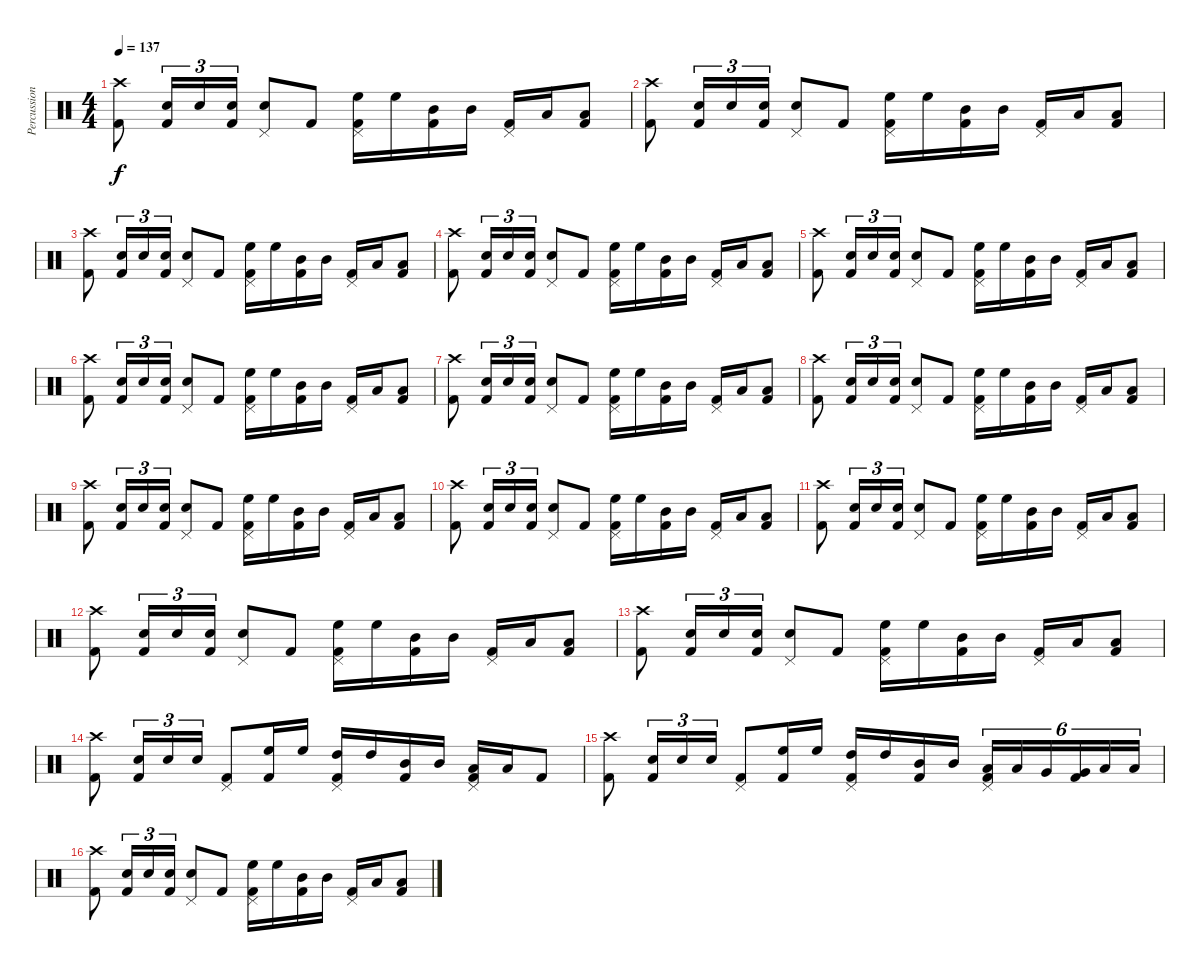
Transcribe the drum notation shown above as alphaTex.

\track ("Percussion" "Percussion") {instrument percussion}
\staff {score}
\articulation defaults
\ts (4 4)
\tempo 137
\clef neutral
\ks c
("Kick (hit) 2" "Crash high (hit)").8{dy f} ("Kick (hit) 2" "Snare (hit) 2").16{tu (3 2)} "Snare (hit) 2".16{tu (3 2)} ("Kick (hit) 2" "Snare (hit) 2").16{tu (3 2)} ("Snare (hit) 2" "Pedal Hi-Hat (hit)").8 "Kick (hit) 2".8 ("Kick (hit) 2" "High Floor Tom (hit)" "Pedal Hi-Hat (hit)").16 "High Floor Tom (hit)".16 ("Kick (hit) 2" "Mid Tom (hit)").16 "Mid Tom (hit)".16 ("Kick (hit) 2" "Pedal Hi-Hat (hit)").16 "Low Tom (hit)".16 ("Kick (hit) 2" "Low Tom (hit)").8 |
("Kick (hit) 2" "Crash high (hit)").8 ("Kick (hit) 2" "Snare (hit) 2").16{tu (3 2)} "Snare (hit) 2".16{tu (3 2)} ("Kick (hit) 2" "Snare (hit) 2").16{tu (3 2)} ("Snare (hit) 2" "Pedal Hi-Hat (hit)").8 "Kick (hit) 2".8 ("Kick (hit) 2" "High Floor Tom (hit)" "Pedal Hi-Hat (hit)").16 "High Floor Tom (hit)".16 ("Kick (hit) 2" "Mid Tom (hit)").16 "Mid Tom (hit)".16 ("Kick (hit) 2" "Pedal Hi-Hat (hit)").16 "Low Tom (hit)".16 ("Kick (hit) 2" "Low Tom (hit)").8 |
("Kick (hit) 2" "Crash high (hit)").8 ("Kick (hit) 2" "Snare (hit) 2").16{tu (3 2)} "Snare (hit) 2".16{tu (3 2)} ("Kick (hit) 2" "Snare (hit) 2").16{tu (3 2)} ("Snare (hit) 2" "Pedal Hi-Hat (hit)").8 "Kick (hit) 2".8 ("Kick (hit) 2" "High Floor Tom (hit)" "Pedal Hi-Hat (hit)").16 "High Floor Tom (hit)".16 ("Kick (hit) 2" "Mid Tom (hit)").16 "Mid Tom (hit)".16 ("Kick (hit) 2" "Pedal Hi-Hat (hit)").16 "Low Tom (hit)".16 ("Kick (hit) 2" "Low Tom (hit)").8 |
("Kick (hit) 2" "Crash high (hit)").8 ("Kick (hit) 2" "Snare (hit) 2").16{tu (3 2)} "Snare (hit) 2".16{tu (3 2)} ("Kick (hit) 2" "Snare (hit) 2").16{tu (3 2)} ("Snare (hit) 2" "Pedal Hi-Hat (hit)").8 "Kick (hit) 2".8 ("Kick (hit) 2" "High Floor Tom (hit)" "Pedal Hi-Hat (hit)").16 "High Floor Tom (hit)".16 ("Kick (hit) 2" "Mid Tom (hit)").16 "Mid Tom (hit)".16 ("Kick (hit) 2" "Pedal Hi-Hat (hit)").16 "Low Tom (hit)".16 ("Kick (hit) 2" "Low Tom (hit)").8 |
("Kick (hit) 2" "Crash high (hit)").8 ("Kick (hit) 2" "Snare (hit) 2").16{tu (3 2)} "Snare (hit) 2".16{tu (3 2)} ("Kick (hit) 2" "Snare (hit) 2").16{tu (3 2)} ("Snare (hit) 2" "Pedal Hi-Hat (hit)").8 "Kick (hit) 2".8 ("Kick (hit) 2" "High Floor Tom (hit)" "Pedal Hi-Hat (hit)").16 "High Floor Tom (hit)".16 ("Kick (hit) 2" "Mid Tom (hit)").16 "Mid Tom (hit)".16 ("Kick (hit) 2" "Pedal Hi-Hat (hit)").16 "Low Tom (hit)".16 ("Kick (hit) 2" "Low Tom (hit)").8 |
("Kick (hit) 2" "Crash high (hit)").8 ("Kick (hit) 2" "Snare (hit) 2").16{tu (3 2)} "Snare (hit) 2".16{tu (3 2)} ("Kick (hit) 2" "Snare (hit) 2").16{tu (3 2)} ("Snare (hit) 2" "Pedal Hi-Hat (hit)").8 "Kick (hit) 2".8 ("Kick (hit) 2" "High Floor Tom (hit)" "Pedal Hi-Hat (hit)").16 "High Floor Tom (hit)".16 ("Kick (hit) 2" "Mid Tom (hit)").16 "Mid Tom (hit)".16 ("Kick (hit) 2" "Pedal Hi-Hat (hit)").16 "Low Tom (hit)".16 ("Kick (hit) 2" "Low Tom (hit)").8 |
("Kick (hit) 2" "Crash high (hit)").8 ("Kick (hit) 2" "Snare (hit) 2").16{tu (3 2)} "Snare (hit) 2".16{tu (3 2)} ("Kick (hit) 2" "Snare (hit) 2").16{tu (3 2)} ("Snare (hit) 2" "Pedal Hi-Hat (hit)").8 "Kick (hit) 2".8 ("Kick (hit) 2" "High Floor Tom (hit)" "Pedal Hi-Hat (hit)").16 "High Floor Tom (hit)".16 ("Kick (hit) 2" "Mid Tom (hit)").16 "Mid Tom (hit)".16 ("Kick (hit) 2" "Pedal Hi-Hat (hit)").16 "Low Tom (hit)".16 ("Kick (hit) 2" "Low Tom (hit)").8 |
("Kick (hit) 2" "Crash high (hit)").8 ("Kick (hit) 2" "Snare (hit) 2").16{tu (3 2)} "Snare (hit) 2".16{tu (3 2)} ("Kick (hit) 2" "Snare (hit) 2").16{tu (3 2)} ("Snare (hit) 2" "Pedal Hi-Hat (hit)").8 "Kick (hit) 2".8 ("Kick (hit) 2" "High Floor Tom (hit)" "Pedal Hi-Hat (hit)").16 "High Floor Tom (hit)".16 ("Kick (hit) 2" "Mid Tom (hit)").16 "Mid Tom (hit)".16 ("Kick (hit) 2" "Pedal Hi-Hat (hit)").16 "Low Tom (hit)".16 ("Kick (hit) 2" "Low Tom (hit)").8 |
("Kick (hit) 2" "Crash high (hit)").8 ("Kick (hit) 2" "Snare (hit) 2").16{tu (3 2)} "Snare (hit) 2".16{tu (3 2)} ("Kick (hit) 2" "Snare (hit) 2").16{tu (3 2)} ("Snare (hit) 2" "Pedal Hi-Hat (hit)").8 "Kick (hit) 2".8 ("Kick (hit) 2" "High Floor Tom (hit)" "Pedal Hi-Hat (hit)").16 "High Floor Tom (hit)".16 ("Kick (hit) 2" "Mid Tom (hit)").16 "Mid Tom (hit)".16 ("Kick (hit) 2" "Pedal Hi-Hat (hit)").16 "Low Tom (hit)".16 ("Kick (hit) 2" "Low Tom (hit)").8 |
("Kick (hit) 2" "Crash high (hit)").8 ("Kick (hit) 2" "Snare (hit) 2").16{tu (3 2)} "Snare (hit) 2".16{tu (3 2)} ("Kick (hit) 2" "Snare (hit) 2").16{tu (3 2)} ("Snare (hit) 2" "Pedal Hi-Hat (hit)").8 "Kick (hit) 2".8 ("Kick (hit) 2" "High Floor Tom (hit)" "Pedal Hi-Hat (hit)").16 "High Floor Tom (hit)".16 ("Kick (hit) 2" "Mid Tom (hit)").16 "Mid Tom (hit)".16 ("Kick (hit) 2" "Pedal Hi-Hat (hit)").16 "Low Tom (hit)".16 ("Kick (hit) 2" "Low Tom (hit)").8 |
("Kick (hit) 2" "Crash high (hit)").8 ("Kick (hit) 2" "Snare (hit) 2").16{tu (3 2)} "Snare (hit) 2".16{tu (3 2)} ("Kick (hit) 2" "Snare (hit) 2").16{tu (3 2)} ("Snare (hit) 2" "Pedal Hi-Hat (hit)").8 "Kick (hit) 2".8 ("Kick (hit) 2" "High Floor Tom (hit)" "Pedal Hi-Hat (hit)").16 "High Floor Tom (hit)".16 ("Kick (hit) 2" "Mid Tom (hit)").16 "Mid Tom (hit)".16 ("Kick (hit) 2" "Pedal Hi-Hat (hit)").16 "Low Tom (hit)".16 ("Kick (hit) 2" "Low Tom (hit)").8 |
("Kick (hit) 2" "Crash high (hit)").8 ("Kick (hit) 2" "Snare (hit) 2").16{tu (3 2)} "Snare (hit) 2".16{tu (3 2)} ("Kick (hit) 2" "Snare (hit) 2").16{tu (3 2)} ("Snare (hit) 2" "Pedal Hi-Hat (hit)").8 "Kick (hit) 2".8 ("Kick (hit) 2" "High Floor Tom (hit)" "Pedal Hi-Hat (hit)").16 "High Floor Tom (hit)".16 ("Kick (hit) 2" "Mid Tom (hit)").16 "Mid Tom (hit)".16 ("Kick (hit) 2" "Pedal Hi-Hat (hit)").16 "Low Tom (hit)".16 ("Kick (hit) 2" "Low Tom (hit)").8 |
("Kick (hit) 2" "Crash high (hit)").8 ("Kick (hit) 2" "Snare (hit) 2").16{tu (3 2)} "Snare (hit) 2".16{tu (3 2)} ("Kick (hit) 2" "Snare (hit) 2").16{tu (3 2)} ("Snare (hit) 2" "Pedal Hi-Hat (hit)").8 "Kick (hit) 2".8 ("Kick (hit) 2" "High Floor Tom (hit)" "Pedal Hi-Hat (hit)").16 "High Floor Tom (hit)".16 ("Kick (hit) 2" "Mid Tom (hit)").16 "Mid Tom (hit)".16 ("Kick (hit) 2" "Pedal Hi-Hat (hit)").16 "Low Tom (hit)".16 ("Kick (hit) 2" "Low Tom (hit)").8 |
("Kick (hit) 2" "Crash high (hit)").8 ("Kick (hit) 2" "Snare (hit) 2").16{tu (3 2)} "Snare (hit) 2".16{tu (3 2)} "Snare (hit) 2".16{tu (3 2)} ("Kick (hit) 2" "Pedal Hi-Hat (hit)").8 ("Kick (hit) 2" "High Floor Tom (hit)").16 "High Floor Tom (hit)".16 ("Kick (hit) 2" "High Tom (hit)" "Pedal Hi-Hat (hit)").16 "High Tom (hit)".16 ("Kick (hit) 2" "Mid Tom (hit)").16 "Mid Tom (hit)".16 ("Kick (hit) 2" "Low Tom (hit)" "Pedal Hi-Hat (hit)").16 "Low Tom (hit)".16 "Kick (hit) 2".8 |
("Kick (hit) 2" "Crash high (hit)").8 ("Kick (hit) 2" "Snare (hit) 2").16{tu (3 2)} "Snare (hit) 2".16{tu (3 2)} "Snare (hit) 2".16{tu (3 2)} ("Kick (hit) 2" "Pedal Hi-Hat (hit)").8 ("Kick (hit) 2" "High Floor Tom (hit)").16 "High Floor Tom (hit)".16 ("Kick (hit) 2" "High Tom (hit)" "Pedal Hi-Hat (hit)").16 "High Tom (hit)".16 ("Kick (hit) 2" "Mid Tom (hit)").16 "Mid Tom (hit)".16 ("Kick (hit) 2" "Low Tom (hit)" "Pedal Hi-Hat (hit)").16{tu (6 4)} "Low Tom (hit)".16{tu (6 4)} "Very Low Tom (hit)".16{tu (6 4)} ("Kick (hit) 2" "Very Low Tom (hit)").16{tu (6 4)} "Low Floor Tom (hit)".16{tu (6 4)} "Low Floor Tom (hit)".16{tu (6 4)} |
("Kick (hit) 2" "Crash high (hit)").8 ("Kick (hit) 2" "Snare (hit) 2").16{tu (3 2)} "Snare (hit) 2".16{tu (3 2)} ("Kick (hit) 2" "Snare (hit) 2").16{tu (3 2)} ("Snare (hit) 2" "Pedal Hi-Hat (hit)").8 "Kick (hit) 2".8 ("Kick (hit) 2" "High Floor Tom (hit)" "Pedal Hi-Hat (hit)").16 "High Floor Tom (hit)".16 ("Kick (hit) 2" "Mid Tom (hit)").16 "Mid Tom (hit)".16 ("Kick (hit) 2" "Pedal Hi-Hat (hit)").16 "Low Tom (hit)".16 ("Kick (hit) 2" "Low Tom (hit)").8
